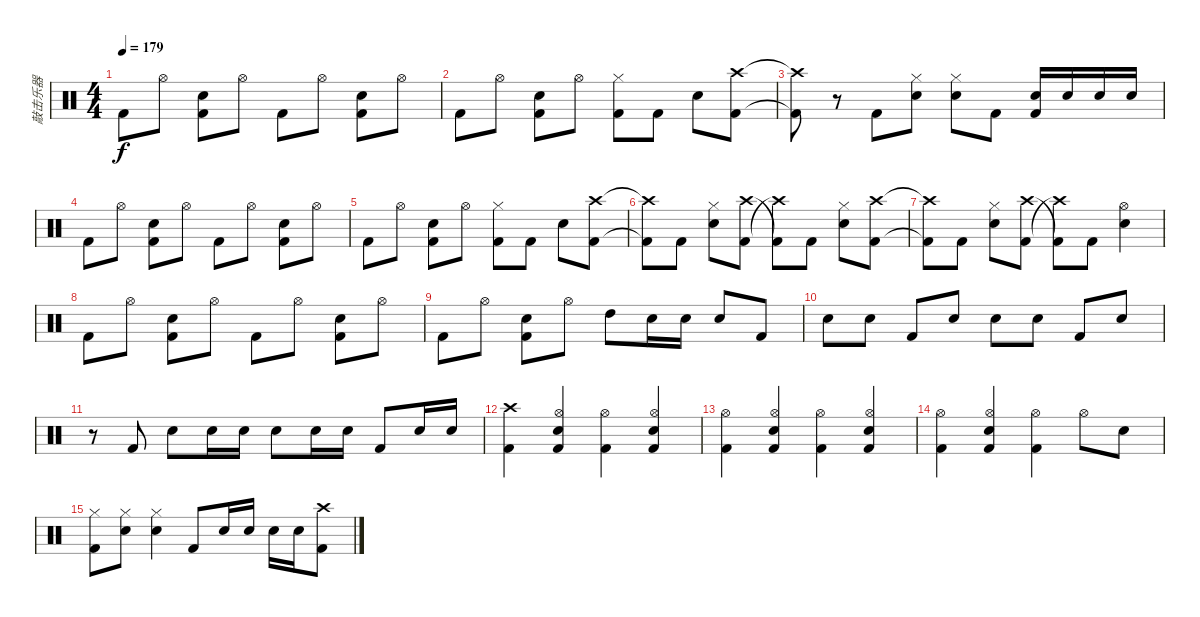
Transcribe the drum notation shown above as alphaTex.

\track ("敲击乐器" "敲击乐器") {instrument percussion}
\staff {score}
\articulation defaults
\ts (4 4)
\tempo 179
\clef neutral
\ks c "Kick (hit) 2".8{dy f} "Hi-Hat (open)".8
("Kick (hit) 2" "Snare (hit) 2").8 "Hi-Hat (open)".8 "Kick (hit) 2".8 "Hi-Hat (open)".8 ("Kick (hit) 2" "Snare (hit) 2").8 "Hi-Hat (open)".8 |
"Kick (hit) 2".8 "Hi-Hat (open)".8 ("Kick (hit) 2" "Snare (hit) 2").8 "Hi-Hat (open)".8 ("Hi-Hat (closed)" "Kick (hit) 2").8 "Kick (hit) 2".8 "Snare (hit) 2".8 ("Kick (hit) 2" "Crash high (hit)").8 |
("Kick (hit) 2"{t} "Crash high (hit)"{t}).8 r.8 "Kick (hit) 2".8 ("Snare (hit) 2" "Hi-Hat (closed)").8 ("Hi-Hat (closed)" "Snare (hit) 2").8 "Kick (hit) 2".8 ("Snare (hit) 2" "Kick (hit) 2").16 "Snare (hit) 2".16 "Snare (hit) 2".16 "Snare (hit) 2".16 |
"Kick (hit) 2".8 "Hi-Hat (open)".8 ("Kick (hit) 2" "Snare (hit) 2").8 "Hi-Hat (open)".8 "Kick (hit) 2".8 "Hi-Hat (open)".8 ("Kick (hit) 2" "Snare (hit) 2").8 "Hi-Hat (open)".8 |
"Kick (hit) 2".8 "Hi-Hat (open)".8 ("Kick (hit) 2" "Snare (hit) 2").8 "Hi-Hat (open)".8 ("Hi-Hat (closed)" "Kick (hit) 2").8 "Kick (hit) 2".8 "Snare (hit) 2".8 ("Kick (hit) 2" "Crash high (hit)").8 |
("Kick (hit) 2"{t} "Crash high (hit)"{t}).8 "Kick (hit) 2".8 ("Snare (hit) 2" "Hi-Hat (closed)").8 ("Kick (hit) 2" "Crash high (hit)").8 ("Crash high (hit)"{t} "Kick (hit) 2"{t}).8 "Kick (hit) 2".8 ("Snare (hit) 2" "Hi-Hat (closed)").8 ("Kick (hit) 2" "Crash high (hit)").8 |
("Kick (hit) 2"{t} "Crash high (hit)"{t}).8 "Kick (hit) 2".8 ("Snare (hit) 2" "Hi-Hat (closed)").8 ("Kick (hit) 2" "Crash high (hit)").8 ("Crash high (hit)"{t} "Kick (hit) 2"{t}).8 "Kick (hit) 2".8 ("Snare (hit) 2" "Hi-Hat (open)").4 |
"Kick (hit) 2".8 "Hi-Hat (open)".8 ("Kick (hit) 2" "Snare (hit) 2").8 "Hi-Hat (open)".8 "Kick (hit) 2".8 "Hi-Hat (open)".8 ("Kick (hit) 2" "Snare (hit) 2").8 "Hi-Hat (open)".8 |
"Kick (hit) 2".8 "Hi-Hat (open)".8 ("Kick (hit) 2" "Snare (hit) 2").8 "Hi-Hat (open)".8 "High Tom (hit)".8 "Snare (hit) 2".16 "Snare (hit) 2".16 "Snare (hit) 2".8 "Kick (hit) 2".8 |
"Snare (hit) 2".8 "Snare (hit) 2".8 "Kick (hit) 2".8 "Snare (hit) 2".8 "Snare (hit) 2".8 "Snare (hit) 2".8 "Kick (hit) 2".8 "Snare (hit) 2".8 |
r.8 "Kick (hit) 2".8 "Snare (hit) 2".8 "Snare (hit) 2".16 "Snare (hit) 2".16 "Snare (hit) 2".8 "Snare (hit) 2".16 "Snare (hit) 2".16 "Kick (hit) 2".8 "Snare (hit) 2".16 "Snare (hit) 2".16 |
("Kick (hit) 2" "Crash high (hit)").4 ("Hi-Hat (open)" "Kick (hit) 2" "Snare (hit) 2").4 ("Kick (hit) 2" "Hi-Hat (open)").4 ("Hi-Hat (open)" "Kick (hit) 2" "Snare (hit) 2").4 |
("Kick (hit) 2" "Hi-Hat (open)").4 ("Hi-Hat (open)" "Kick (hit) 2" "Snare (hit) 2").4 ("Kick (hit) 2" "Hi-Hat (open)").4 ("Hi-Hat (open)" "Kick (hit) 2" "Snare (hit) 2").4 |
("Kick (hit) 2" "Hi-Hat (open)").4 ("Hi-Hat (open)" "Kick (hit) 2" "Snare (hit) 2").4 ("Kick (hit) 2" "Hi-Hat (open)").4 "Hi-Hat (open)".8 "Snare (hit) 2".8 |
("Hi-Hat (closed)" "Kick (hit) 2").8 ("Snare (hit) 2" "Hi-Hat (closed)").8 ("Hi-Hat (closed)" "Snare (hit) 2").4 "Kick (hit) 2".8 "Snare (hit) 2".16 "Snare (hit) 2".16 "Snare (hit) 2".16 "Snare (hit) 2".16 ("Kick (hit) 2" "Crash high (hit)").8
